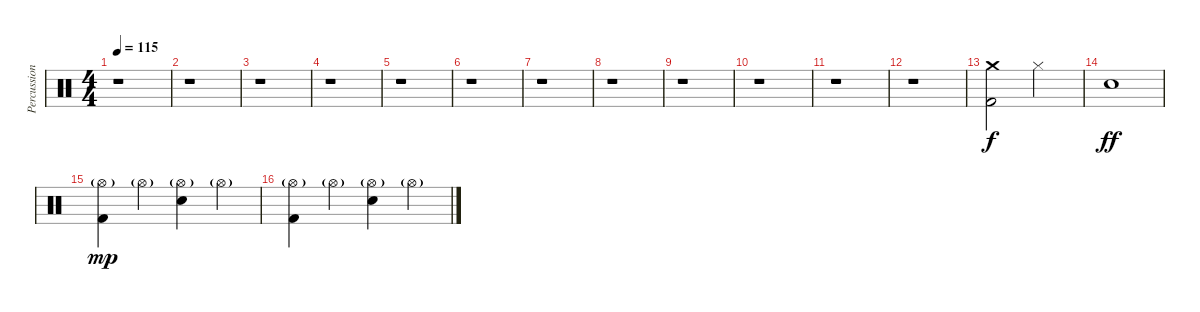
\track ("Percussioni" "Percussion") {instrument percussion}
\staff {score}
\articulation defaults
\ts (4 4)
\tempo 115
\clef neutral
\ks c
r.1{dy f} |
r.1 |
r.1 |
r.1 |
r.1 |
r.1 |
r.1 |
r.1 |
r.1 |
r.1 |
r.1 |
r.1 |
("Crash medium (hit)" "Kick (hit) 2").2 "Hi-Hat (closed)".2 |
"Electric Snare (hit)".1{dy ff} |
("Hi-Hat (open)"{g} "Kick (hit) 2").4{dy mp} "Hi-Hat (open)"{g}.4 ("Hi-Hat (open)"{g} "Electric Snare (hit)").4 "Hi-Hat (open)"{g}.4 |
("Hi-Hat (open)"{g} "Kick (hit) 2").4 "Hi-Hat (open)"{g}.4 ("Hi-Hat (open)"{g} "Electric Snare (hit)").4 "Hi-Hat (open)"{g}.4
